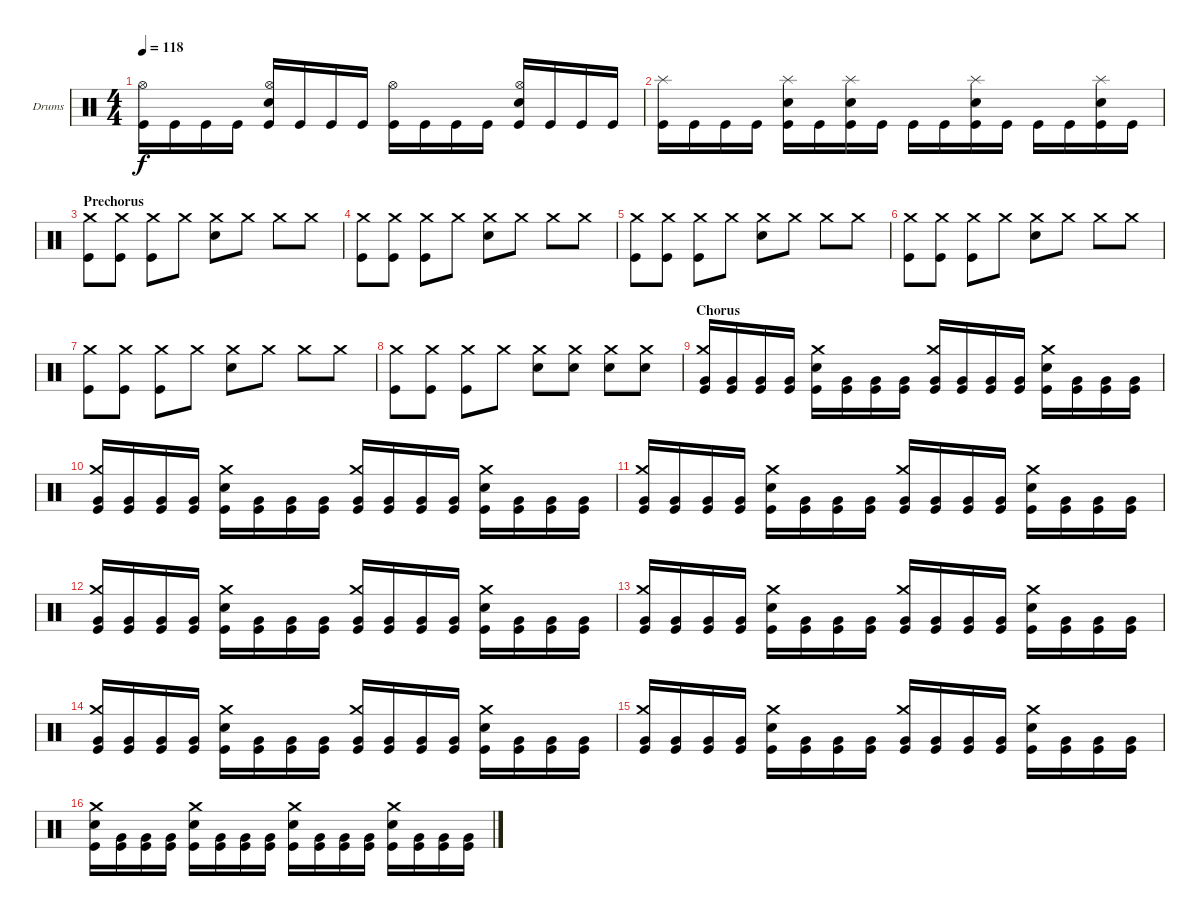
\bracketExtendMode groupsimilarinstruments
\firstSystemTrackNameOrientation horizontal
\otherSystemsTrackNameOrientation horizontal
\track ("Drumkit" "Drums") {solo instrument percussion}
\staff {score}
\articulation defaults
\ts (4 4)
\tempo 118
\clef neutral
\ks c
("Kick (hit)" "Hi-Hat (open)").16{dy f} "Kick (hit)".16 "Kick (hit)".16 "Kick (hit)".16 ("Kick (hit)" "Snare (hit) 2" "Hi-Hat (open)").16 "Kick (hit)".16 "Kick (hit)".16 "Kick (hit)".16 ("Kick (hit)" "Hi-Hat (open)").16 "Kick (hit)".16 "Kick (hit)".16 "Kick (hit)".16 ("Kick (hit)" "Snare (hit) 2" "Hi-Hat (open)").16 "Kick (hit)".16 "Kick (hit)".16 "Kick (hit)".16 |
("Kick (hit)" "Splash (hit)").16 "Kick (hit)".16 "Kick (hit)".16 "Kick (hit)".16 ("Kick (hit)" "Splash (hit)" "Snare (hit) 2").16 "Kick (hit)".16 ("Kick (hit)" "Splash (hit)" "Snare (hit) 2").16 "Kick (hit)".16 "Kick (hit)".16 "Kick (hit)".16 ("Kick (hit)" "Splash (hit)" "Snare (hit) 2").16 "Kick (hit)".16 "Kick (hit)".16 "Kick (hit)".16 ("Kick (hit)" "Splash (hit)" "Snare (hit) 2").16 "Kick (hit)".16 |
\section ("" "Prechorus")
("Kick (hit)" "Crash medium (hit)").8 ("Kick (hit)" "Crash medium (hit)").8 ("Kick (hit)" "Crash medium (hit)").8 "Crash medium (hit)".8 ("Snare (hit) 2" "Crash medium (hit)").8 "Crash medium (hit)".8 "Crash medium (hit)".8 "Crash medium (hit)".8 |
("Kick (hit)" "Crash medium (hit)").8 ("Kick (hit)" "Crash medium (hit)").8 ("Kick (hit)" "Crash medium (hit)").8 "Crash medium (hit)".8 ("Snare (hit) 2" "Crash medium (hit)").8 "Crash medium (hit)".8 "Crash medium (hit)".8 "Crash medium (hit)".8 |
("Kick (hit)" "Crash medium (hit)").8 ("Kick (hit)" "Crash medium (hit)").8 ("Kick (hit)" "Crash medium (hit)").8 "Crash medium (hit)".8 ("Snare (hit) 2" "Crash medium (hit)").8 "Crash medium (hit)".8 "Crash medium (hit)".8 "Crash medium (hit)".8 |
("Kick (hit)" "Crash medium (hit)").8 ("Kick (hit)" "Crash medium (hit)").8 ("Kick (hit)" "Crash medium (hit)").8 "Crash medium (hit)".8 ("Snare (hit) 2" "Crash medium (hit)").8 "Crash medium (hit)".8 "Crash medium (hit)".8 "Crash medium (hit)".8 |
("Kick (hit)" "Crash medium (hit)").8 ("Kick (hit)" "Crash medium (hit)").8 ("Kick (hit)" "Crash medium (hit)").8 "Crash medium (hit)".8 ("Snare (hit) 2" "Crash medium (hit)").8 "Crash medium (hit)".8 "Crash medium (hit)".8 "Crash medium (hit)".8 |
("Kick (hit)" "Crash medium (hit)").8 ("Kick (hit)" "Crash medium (hit)").8 ("Kick (hit)" "Crash medium (hit)").8 "Crash medium (hit)".8 ("Snare (hit) 2" "Crash medium (hit)").8 ("Snare (hit) 2" "Crash medium (hit)").8 ("Snare (hit) 2" "Crash medium (hit)").8 ("Snare (hit) 2" "Crash medium (hit)").8 |
\section ("" "Chorus")
("Kick (hit)" "Very Low Tom (hit)" "Crash medium (hit)").16 ("Kick (hit)" "Very Low Tom (hit)").16 ("Kick (hit)" "Very Low Tom (hit)").16 ("Kick (hit)" "Very Low Tom (hit)").16 ("Kick (hit)" "Snare (hit) 2" "Crash medium (hit)").16 ("Kick (hit)" "Very Low Tom (hit)").16 ("Kick (hit)" "Very Low Tom (hit)").16 ("Kick (hit)" "Very Low Tom (hit)").16 ("Kick (hit)" "Very Low Tom (hit)" "Crash medium (hit)").16 ("Kick (hit)" "Very Low Tom (hit)").16 ("Kick (hit)" "Very Low Tom (hit)").16 ("Kick (hit)" "Very Low Tom (hit)").16 ("Kick (hit)" "Snare (hit) 2" "Crash medium (hit)").16 ("Kick (hit)" "Very Low Tom (hit)").16 ("Kick (hit)" "Very Low Tom (hit)").16 ("Kick (hit)" "Very Low Tom (hit)").16 |
("Kick (hit)" "Very Low Tom (hit)" "Crash medium (hit)").16 ("Kick (hit)" "Very Low Tom (hit)").16 ("Kick (hit)" "Very Low Tom (hit)").16 ("Kick (hit)" "Very Low Tom (hit)").16 ("Kick (hit)" "Snare (hit) 2" "Crash medium (hit)").16 ("Kick (hit)" "Very Low Tom (hit)").16 ("Kick (hit)" "Very Low Tom (hit)").16 ("Kick (hit)" "Very Low Tom (hit)").16 ("Kick (hit)" "Very Low Tom (hit)" "Crash medium (hit)").16 ("Kick (hit)" "Very Low Tom (hit)").16 ("Kick (hit)" "Very Low Tom (hit)").16 ("Kick (hit)" "Very Low Tom (hit)").16 ("Kick (hit)" "Snare (hit) 2" "Crash medium (hit)").16 ("Kick (hit)" "Very Low Tom (hit)").16 ("Kick (hit)" "Very Low Tom (hit)").16 ("Kick (hit)" "Very Low Tom (hit)").16 |
("Kick (hit)" "Very Low Tom (hit)" "Crash medium (hit)").16 ("Kick (hit)" "Very Low Tom (hit)").16 ("Kick (hit)" "Very Low Tom (hit)").16 ("Kick (hit)" "Very Low Tom (hit)").16 ("Kick (hit)" "Snare (hit) 2" "Crash medium (hit)").16 ("Kick (hit)" "Very Low Tom (hit)").16 ("Kick (hit)" "Very Low Tom (hit)").16 ("Kick (hit)" "Very Low Tom (hit)").16 ("Kick (hit)" "Very Low Tom (hit)" "Crash medium (hit)").16 ("Kick (hit)" "Very Low Tom (hit)").16 ("Kick (hit)" "Very Low Tom (hit)").16 ("Kick (hit)" "Very Low Tom (hit)").16 ("Kick (hit)" "Snare (hit) 2" "Crash medium (hit)").16 ("Kick (hit)" "Very Low Tom (hit)").16 ("Kick (hit)" "Very Low Tom (hit)").16 ("Kick (hit)" "Very Low Tom (hit)").16 |
("Kick (hit)" "Very Low Tom (hit)" "Crash medium (hit)").16 ("Kick (hit)" "Very Low Tom (hit)").16 ("Kick (hit)" "Very Low Tom (hit)").16 ("Kick (hit)" "Very Low Tom (hit)").16 ("Kick (hit)" "Snare (hit) 2" "Crash medium (hit)").16 ("Kick (hit)" "Very Low Tom (hit)").16 ("Kick (hit)" "Very Low Tom (hit)").16 ("Kick (hit)" "Very Low Tom (hit)").16 ("Kick (hit)" "Very Low Tom (hit)" "Crash medium (hit)").16 ("Kick (hit)" "Very Low Tom (hit)").16 ("Kick (hit)" "Very Low Tom (hit)").16 ("Kick (hit)" "Very Low Tom (hit)").16 ("Kick (hit)" "Snare (hit) 2" "Crash medium (hit)").16 ("Kick (hit)" "Very Low Tom (hit)").16 ("Kick (hit)" "Very Low Tom (hit)").16 ("Kick (hit)" "Very Low Tom (hit)").16 |
("Kick (hit)" "Very Low Tom (hit)" "Crash medium (hit)").16 ("Kick (hit)" "Very Low Tom (hit)").16 ("Kick (hit)" "Very Low Tom (hit)").16 ("Kick (hit)" "Very Low Tom (hit)").16 ("Kick (hit)" "Snare (hit) 2" "Crash medium (hit)").16 ("Kick (hit)" "Very Low Tom (hit)").16 ("Kick (hit)" "Very Low Tom (hit)").16 ("Kick (hit)" "Very Low Tom (hit)").16 ("Kick (hit)" "Very Low Tom (hit)" "Crash medium (hit)").16 ("Kick (hit)" "Very Low Tom (hit)").16 ("Kick (hit)" "Very Low Tom (hit)").16 ("Kick (hit)" "Very Low Tom (hit)").16 ("Kick (hit)" "Snare (hit) 2" "Crash medium (hit)").16 ("Kick (hit)" "Very Low Tom (hit)").16 ("Kick (hit)" "Very Low Tom (hit)").16 ("Kick (hit)" "Very Low Tom (hit)").16 |
("Kick (hit)" "Very Low Tom (hit)" "Crash medium (hit)").16 ("Kick (hit)" "Very Low Tom (hit)").16 ("Kick (hit)" "Very Low Tom (hit)").16 ("Kick (hit)" "Very Low Tom (hit)").16 ("Kick (hit)" "Snare (hit) 2" "Crash medium (hit)").16 ("Kick (hit)" "Very Low Tom (hit)").16 ("Kick (hit)" "Very Low Tom (hit)").16 ("Kick (hit)" "Very Low Tom (hit)").16 ("Kick (hit)" "Very Low Tom (hit)" "Crash medium (hit)").16 ("Kick (hit)" "Very Low Tom (hit)").16 ("Kick (hit)" "Very Low Tom (hit)").16 ("Kick (hit)" "Very Low Tom (hit)").16 ("Kick (hit)" "Snare (hit) 2" "Crash medium (hit)").16 ("Kick (hit)" "Very Low Tom (hit)").16 ("Kick (hit)" "Very Low Tom (hit)").16 ("Kick (hit)" "Very Low Tom (hit)").16 |
("Kick (hit)" "Very Low Tom (hit)" "Crash medium (hit)").16 ("Kick (hit)" "Very Low Tom (hit)").16 ("Kick (hit)" "Very Low Tom (hit)").16 ("Kick (hit)" "Very Low Tom (hit)").16 ("Kick (hit)" "Snare (hit) 2" "Crash medium (hit)").16 ("Kick (hit)" "Very Low Tom (hit)").16 ("Kick (hit)" "Very Low Tom (hit)").16 ("Kick (hit)" "Very Low Tom (hit)").16 ("Kick (hit)" "Very Low Tom (hit)" "Crash medium (hit)").16 ("Kick (hit)" "Very Low Tom (hit)").16 ("Kick (hit)" "Very Low Tom (hit)").16 ("Kick (hit)" "Very Low Tom (hit)").16 ("Kick (hit)" "Snare (hit) 2" "Crash medium (hit)").16 ("Kick (hit)" "Very Low Tom (hit)").16 ("Kick (hit)" "Very Low Tom (hit)").16 ("Kick (hit)" "Very Low Tom (hit)").16 |
("Kick (hit)" "Snare (hit) 2" "Crash medium (hit)").16 ("Kick (hit)" "Very Low Tom (hit)").16 ("Kick (hit)" "Very Low Tom (hit)").16 ("Kick (hit)" "Very Low Tom (hit)").16 ("Kick (hit)" "Snare (hit) 2" "Crash medium (hit)").16 ("Kick (hit)" "Very Low Tom (hit)").16 ("Kick (hit)" "Very Low Tom (hit)").16 ("Kick (hit)" "Very Low Tom (hit)").16 ("Kick (hit)" "Snare (hit) 2" "Crash medium (hit)").16 ("Kick (hit)" "Very Low Tom (hit)").16 ("Kick (hit)" "Very Low Tom (hit)").16 ("Kick (hit)" "Very Low Tom (hit)").16 ("Kick (hit)" "Snare (hit) 2" "Crash medium (hit)").16 ("Kick (hit)" "Very Low Tom (hit)").16 ("Kick (hit)" "Very Low Tom (hit)").16 ("Kick (hit)" "Very Low Tom (hit)").16
